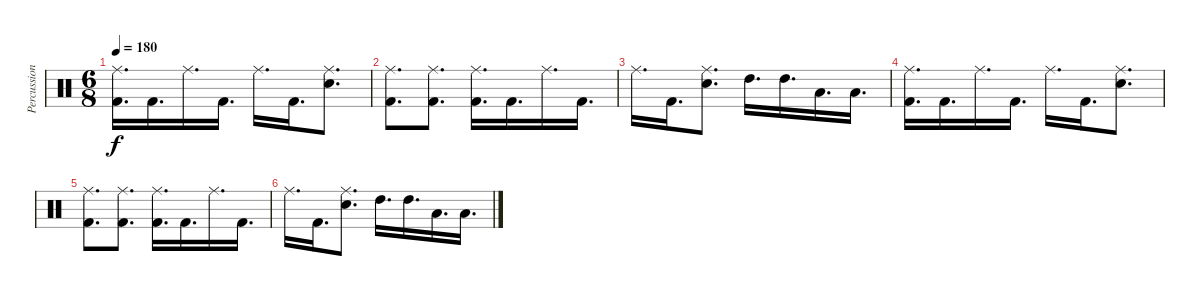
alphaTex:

\track ("Percussion" "Percussion") {instrument percussion}
\staff {score}
\articulation defaults
\ts (6 8)
\tempo 180
\clef neutral
\ks c
("Ride (middle)" "Kick (hit) 2").16{d dy f} "Kick (hit) 2".16{d} "Ride (middle)".16{d} "Kick (hit) 2".16{d} "Ride (middle)".16{d} "Kick (hit) 2".16{d} ("Ride (middle)" "Electric Snare (hit)").8{d} |
("Ride (middle)" "Kick (hit) 2").8{d} ("Ride (middle)" "Kick (hit) 2").8{d} ("Ride (middle)" "Kick (hit) 2").16{d} "Kick (hit) 2".16{d} "Ride (middle)".16{d} "Kick (hit) 2".16{d} |
"Ride (middle)".16{d} "Kick (hit) 2".16{d} ("Ride (middle)" "Electric Snare (hit)").8{d} "High Tom (hit)".16{d} "High Tom (hit)".16{d} "Low Tom (hit)".16{d} "Low Tom (hit)".16{d} |
("Ride (middle)" "Kick (hit) 2").16{d} "Kick (hit) 2".16{d} "Ride (middle)".16{d} "Kick (hit) 2".16{d} "Ride (middle)".16{d} "Kick (hit) 2".16{d} ("Ride (middle)" "Electric Snare (hit)").8{d} |
("Ride (middle)" "Kick (hit) 2").8{d} ("Ride (middle)" "Kick (hit) 2").8{d} ("Ride (middle)" "Kick (hit) 2").16{d} "Kick (hit) 2".16{d} "Ride (middle)".16{d} "Kick (hit) 2".16{d} |
"Ride (middle)".16{d} "Kick (hit) 2".16{d} ("Ride (middle)" "Electric Snare (hit)").8{d} "High Tom (hit)".16{d} "High Tom (hit)".16{d} "Low Tom (hit)".16{d} "Low Tom (hit)".16{d}
